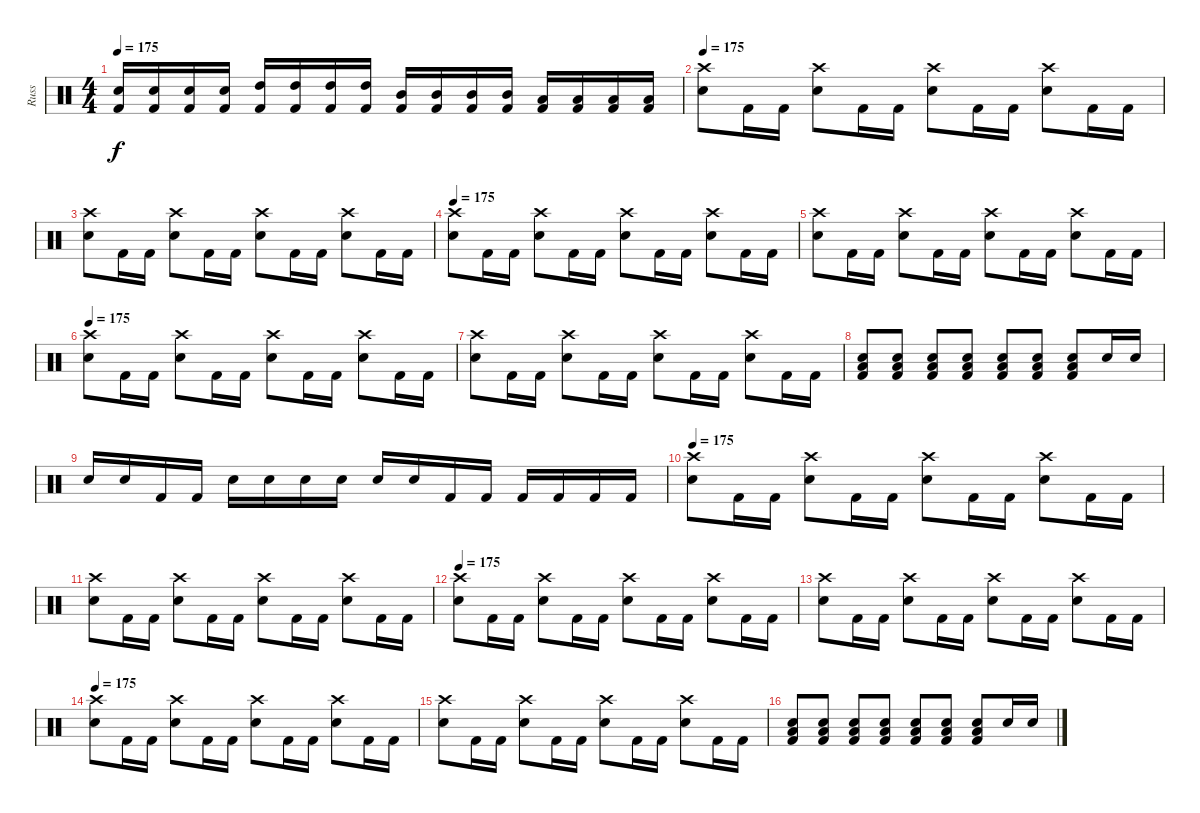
\track ("Russ" "Russ") {instrument percussion}
\staff {score}
\articulation defaults
\ts (4 4)
\tempo 175
\clef neutral
\ks c
("Kick (hit) 2" "Snare (hit) 2").16{dy f} ("Kick (hit) 2" "Snare (hit) 2").16 ("Kick (hit) 2" "Snare (hit) 2").16 ("Kick (hit) 2" "Snare (hit) 2").16 ("Kick (hit) 2" "High Tom (hit)").16 ("Kick (hit) 2" "High Tom (hit)").16 ("Kick (hit) 2" "High Tom (hit)").16 ("Kick (hit) 2" "High Tom (hit)").16 ("Kick (hit) 2" "Mid Tom (hit)").16 ("Kick (hit) 2" "Mid Tom (hit)").16 ("Kick (hit) 2" "Mid Tom (hit)").16 ("Kick (hit) 2" "Mid Tom (hit)").16 ("Kick (hit) 2" "Low Floor Tom (hit)").16 ("Kick (hit) 2" "Low Floor Tom (hit)").16 ("Kick (hit) 2" "Low Floor Tom (hit)").16 ("Kick (hit) 2" "Low Floor Tom (hit)").16 |
\tempo 175
("Snare (hit) 2" "Crash high (hit)").8 "Kick (hit) 2".16 "Kick (hit) 2".16 ("Snare (hit) 2" "Crash high (hit)").8 "Kick (hit) 2".16 "Kick (hit) 2".16 ("Snare (hit) 2" "Crash high (hit)").8 "Kick (hit) 2".16 "Kick (hit) 2".16 ("Snare (hit) 2" "Crash high (hit)").8 "Kick (hit) 2".16 "Kick (hit) 2".16 |
("Snare (hit) 2" "Crash high (hit)").8 "Kick (hit) 2".16 "Kick (hit) 2".16 ("Snare (hit) 2" "Crash high (hit)").8 "Kick (hit) 2".16 "Kick (hit) 2".16 ("Snare (hit) 2" "Crash high (hit)").8 "Kick (hit) 2".16 "Kick (hit) 2".16 ("Snare (hit) 2" "Crash high (hit)").8 "Kick (hit) 2".16 "Kick (hit) 2".16 |
\tempo 175
("Snare (hit) 2" "Crash high (hit)").8 "Kick (hit) 2".16 "Kick (hit) 2".16 ("Snare (hit) 2" "Crash high (hit)").8 "Kick (hit) 2".16 "Kick (hit) 2".16 ("Snare (hit) 2" "Crash high (hit)").8 "Kick (hit) 2".16 "Kick (hit) 2".16 ("Snare (hit) 2" "Crash high (hit)").8 "Kick (hit) 2".16 "Kick (hit) 2".16 |
("Snare (hit) 2" "Crash high (hit)").8 "Kick (hit) 2".16 "Kick (hit) 2".16 ("Snare (hit) 2" "Crash high (hit)").8 "Kick (hit) 2".16 "Kick (hit) 2".16 ("Snare (hit) 2" "Crash high (hit)").8 "Kick (hit) 2".16 "Kick (hit) 2".16 ("Snare (hit) 2" "Crash high (hit)").8 "Kick (hit) 2".16 "Kick (hit) 2".16 |
\tempo 175
("Snare (hit) 2" "Crash high (hit)").8 "Kick (hit) 2".16 "Kick (hit) 2".16 ("Snare (hit) 2" "Crash high (hit)").8 "Kick (hit) 2".16 "Kick (hit) 2".16 ("Snare (hit) 2" "Crash high (hit)").8 "Kick (hit) 2".16 "Kick (hit) 2".16 ("Snare (hit) 2" "Crash high (hit)").8 "Kick (hit) 2".16 "Kick (hit) 2".16 |
("Snare (hit) 2" "Crash high (hit)").8 "Kick (hit) 2".16 "Kick (hit) 2".16 ("Snare (hit) 2" "Crash high (hit)").8 "Kick (hit) 2".16 "Kick (hit) 2".16 ("Snare (hit) 2" "Crash high (hit)").8 "Kick (hit) 2".16 "Kick (hit) 2".16 ("Snare (hit) 2" "Crash high (hit)").8 "Kick (hit) 2".16 "Kick (hit) 2".16 |
("Kick (hit) 2" "Snare (hit) 2" "Low Floor Tom (hit)").8 ("Kick (hit) 2" "Snare (hit) 2" "Low Floor Tom (hit)").8 ("Kick (hit) 2" "Snare (hit) 2" "Low Floor Tom (hit)").8 ("Kick (hit) 2" "Snare (hit) 2" "Low Floor Tom (hit)").8 ("Kick (hit) 2" "Snare (hit) 2" "Low Floor Tom (hit)").8 ("Kick (hit) 2" "Snare (hit) 2" "Low Floor Tom (hit)").8 ("Kick (hit) 2" "Snare (hit) 2" "Low Floor Tom (hit)").8 "Snare (hit) 2".16 "Snare (hit) 2".16 |
"Snare (hit) 2".16 "Snare (hit) 2".16 "Kick (hit) 2".16 "Kick (hit) 2".16 "Snare (hit) 2".16 "Snare (hit) 2".16 "Snare (hit) 2".16 "Snare (hit) 2".16 "Snare (hit) 2".16 "Snare (hit) 2".16 "Kick (hit) 2".16 "Kick (hit) 2".16 "Kick (hit) 2".16 "Kick (hit) 2".16 "Kick (hit) 2".16 "Kick (hit) 2".16 |
\tempo 175
("Snare (hit) 2" "Crash high (hit)").8 "Kick (hit) 2".16 "Kick (hit) 2".16 ("Snare (hit) 2" "Crash high (hit)").8 "Kick (hit) 2".16 "Kick (hit) 2".16 ("Snare (hit) 2" "Crash high (hit)").8 "Kick (hit) 2".16 "Kick (hit) 2".16 ("Snare (hit) 2" "Crash high (hit)").8 "Kick (hit) 2".16 "Kick (hit) 2".16 |
("Snare (hit) 2" "Crash high (hit)").8 "Kick (hit) 2".16 "Kick (hit) 2".16 ("Snare (hit) 2" "Crash high (hit)").8 "Kick (hit) 2".16 "Kick (hit) 2".16 ("Snare (hit) 2" "Crash high (hit)").8 "Kick (hit) 2".16 "Kick (hit) 2".16 ("Snare (hit) 2" "Crash high (hit)").8 "Kick (hit) 2".16 "Kick (hit) 2".16 |
\tempo 175
("Snare (hit) 2" "Crash high (hit)").8 "Kick (hit) 2".16 "Kick (hit) 2".16 ("Snare (hit) 2" "Crash high (hit)").8 "Kick (hit) 2".16 "Kick (hit) 2".16 ("Snare (hit) 2" "Crash high (hit)").8 "Kick (hit) 2".16 "Kick (hit) 2".16 ("Snare (hit) 2" "Crash high (hit)").8 "Kick (hit) 2".16 "Kick (hit) 2".16 |
("Snare (hit) 2" "Crash high (hit)").8 "Kick (hit) 2".16 "Kick (hit) 2".16 ("Snare (hit) 2" "Crash high (hit)").8 "Kick (hit) 2".16 "Kick (hit) 2".16 ("Snare (hit) 2" "Crash high (hit)").8 "Kick (hit) 2".16 "Kick (hit) 2".16 ("Snare (hit) 2" "Crash high (hit)").8 "Kick (hit) 2".16 "Kick (hit) 2".16 |
\tempo 175
("Snare (hit) 2" "Crash high (hit)").8 "Kick (hit) 2".16 "Kick (hit) 2".16 ("Snare (hit) 2" "Crash high (hit)").8 "Kick (hit) 2".16 "Kick (hit) 2".16 ("Snare (hit) 2" "Crash high (hit)").8 "Kick (hit) 2".16 "Kick (hit) 2".16 ("Snare (hit) 2" "Crash high (hit)").8 "Kick (hit) 2".16 "Kick (hit) 2".16 |
("Snare (hit) 2" "Crash high (hit)").8 "Kick (hit) 2".16 "Kick (hit) 2".16 ("Snare (hit) 2" "Crash high (hit)").8 "Kick (hit) 2".16 "Kick (hit) 2".16 ("Snare (hit) 2" "Crash high (hit)").8 "Kick (hit) 2".16 "Kick (hit) 2".16 ("Snare (hit) 2" "Crash high (hit)").8 "Kick (hit) 2".16 "Kick (hit) 2".16 |
("Kick (hit) 2" "Snare (hit) 2" "Low Floor Tom (hit)").8 ("Kick (hit) 2" "Snare (hit) 2" "Low Floor Tom (hit)").8 ("Kick (hit) 2" "Snare (hit) 2" "Low Floor Tom (hit)").8 ("Kick (hit) 2" "Snare (hit) 2" "Low Floor Tom (hit)").8 ("Kick (hit) 2" "Snare (hit) 2" "Low Floor Tom (hit)").8 ("Kick (hit) 2" "Snare (hit) 2" "Low Floor Tom (hit)").8 ("Kick (hit) 2" "Snare (hit) 2" "Low Floor Tom (hit)").8 "Snare (hit) 2".16 "Snare (hit) 2".16
